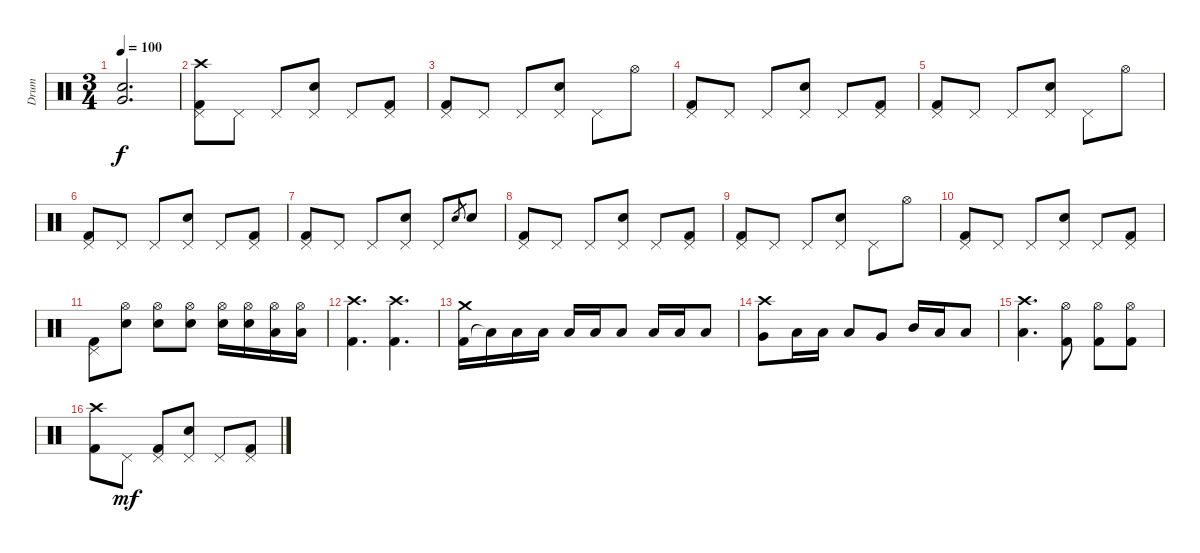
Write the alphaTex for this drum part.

\track ("Drum" "Drum") {instrument percussion}
\staff {score}
\articulation defaults
\ts (3 4)
\tempo 100
\clef neutral
\ks c
("Snare (hit) 2" "Very Low Tom (hit)").2{d bd 30 dy f} |
("Kick (hit) 2" "Pedal Hi-Hat (hit)" "Crash high (hit)").8 "Pedal Hi-Hat (hit)".8 "Pedal Hi-Hat (hit)".8 ("Snare (hit) 2" "Pedal Hi-Hat (hit)").8 "Pedal Hi-Hat (hit)".8 ("Kick (hit) 2" "Pedal Hi-Hat (hit)").8 |
("Kick (hit) 2" "Pedal Hi-Hat (hit)").8 "Pedal Hi-Hat (hit)".8 "Pedal Hi-Hat (hit)".8 ("Snare (hit) 2" "Pedal Hi-Hat (hit)").8 "Pedal Hi-Hat (hit)".8 "Hi-Hat (open)".8 |
("Kick (hit) 2" "Pedal Hi-Hat (hit)").8 "Pedal Hi-Hat (hit)".8 "Pedal Hi-Hat (hit)".8 ("Snare (hit) 2" "Pedal Hi-Hat (hit)").8 "Pedal Hi-Hat (hit)".8 ("Kick (hit) 2" "Pedal Hi-Hat (hit)").8 |
("Kick (hit) 2" "Pedal Hi-Hat (hit)").8 "Pedal Hi-Hat (hit)".8 "Pedal Hi-Hat (hit)".8 ("Snare (hit) 2" "Pedal Hi-Hat (hit)").8 "Pedal Hi-Hat (hit)".8 "Hi-Hat (open)".8 |
("Kick (hit) 2" "Pedal Hi-Hat (hit)").8 "Pedal Hi-Hat (hit)".8 "Pedal Hi-Hat (hit)".8 ("Snare (hit) 2" "Pedal Hi-Hat (hit)").8 "Pedal Hi-Hat (hit)".8 ("Kick (hit) 2" "Pedal Hi-Hat (hit)").8 |
("Kick (hit) 2" "Pedal Hi-Hat (hit)").8 "Pedal Hi-Hat (hit)".8 "Pedal Hi-Hat (hit)".8 ("Snare (hit) 2" "Pedal Hi-Hat (hit)").8 "Pedal Hi-Hat (hit)".8 "Snare (hit) 2".8{gr} "Snare (hit) 2".8 |
("Kick (hit) 2" "Pedal Hi-Hat (hit)").8 "Pedal Hi-Hat (hit)".8 "Pedal Hi-Hat (hit)".8 ("Snare (hit) 2" "Pedal Hi-Hat (hit)").8 "Pedal Hi-Hat (hit)".8 ("Kick (hit) 2" "Pedal Hi-Hat (hit)").8 |
("Kick (hit) 2" "Pedal Hi-Hat (hit)").8 "Pedal Hi-Hat (hit)".8 "Pedal Hi-Hat (hit)".8 ("Snare (hit) 2" "Pedal Hi-Hat (hit)").8 "Pedal Hi-Hat (hit)".8 "Hi-Hat (open)".8 |
("Kick (hit) 2" "Pedal Hi-Hat (hit)").8 "Pedal Hi-Hat (hit)".8 "Pedal Hi-Hat (hit)".8 ("Snare (hit) 2" "Pedal Hi-Hat (hit)").8 "Pedal Hi-Hat (hit)".8 ("Kick (hit) 2" "Pedal Hi-Hat (hit)").8 |
("Kick (hit) 2" "Pedal Hi-Hat (hit)").8 ("Snare (hit) 2" "Hi-Hat (open)").8 ("Snare (hit) 2" "Hi-Hat (open)").8 ("Snare (hit) 2" "Hi-Hat (open)").8 ("Snare (hit) 2" "Hi-Hat (open)").16 ("Snare (hit) 2" "Hi-Hat (open)").16 ("Low Tom (hit)" "Hi-Hat (open)").16 ("Low Tom (hit)" "Hi-Hat (open)").16 |
("Kick (hit) 2" "Crash high (hit)").4{d} ("Kick (hit) 2" "Crash high (hit)").4{d} |
("Kick (hit) 2" "Crash medium (hit)").16 "Low Tom (hit)"{t}.16 "Low Tom (hit)".16 "Low Tom (hit)".16 "Low Tom (hit)".16 "Low Tom (hit)".16 "Low Tom (hit)".8 "Low Tom (hit)".16 "Low Tom (hit)".16 "Low Tom (hit)".8 |
("Very Low Tom (hit)" "Crash high (hit)").8 "Low Tom (hit)".16 "Low Tom (hit)".16 "Low Tom (hit)".8 "Very Low Tom (hit)".8 "Mid Tom (hit)".16 "Low Tom (hit)".16 "Low Tom (hit)".8 |
("Low Tom (hit)" "Crash high (hit)").4{d} ("Kick (hit) 2" "Hi-Hat (open)").8 ("Kick (hit) 2" "Hi-Hat (open)").8 ("Kick (hit) 2" "Hi-Hat (open)").8 |
("Kick (hit) 2" "Crash high (hit)").8 "Pedal Hi-Hat (hit)".8{dy mf} ("Kick (hit) 2" "Pedal Hi-Hat (hit)").8 ("Snare (hit) 2" "Pedal Hi-Hat (hit)").8 "Pedal Hi-Hat (hit)".8 ("Kick (hit) 2" "Pedal Hi-Hat (hit)").8
